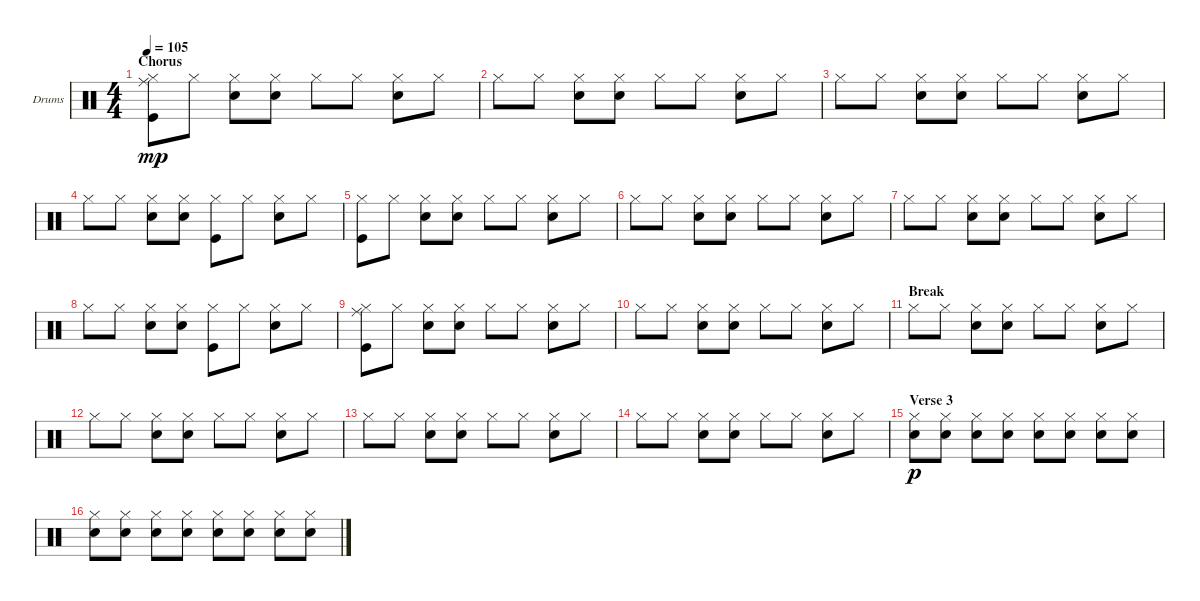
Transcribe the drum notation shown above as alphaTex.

\bracketExtendMode groupsimilarinstruments
\firstSystemTrackNameOrientation horizontal
\otherSystemsTrackNameOrientation horizontal
\track ("Drumkit" "Drums") {instrument percussion}
\staff {score}
\articulation defaults
\ts (4 4)
\section ("" "Chorus")
\tempo 105
\clef neutral
\ks c
("Hi-Hat (closed)" "Ride (middle)" "Kick (hit)").8{dy mp} "Hi-Hat (closed)".8 ("Snare (hit) 2" "Hi-Hat (closed)").8 ("Hi-Hat (closed)" "Snare (hit) 2").8 "Hi-Hat (closed)".8 "Hi-Hat (closed)".8 ("Snare (hit) 2" "Hi-Hat (closed)").8 "Hi-Hat (closed)".8 |
"Hi-Hat (closed)".8 "Hi-Hat (closed)".8 ("Snare (hit) 2" "Hi-Hat (closed)").8 ("Hi-Hat (closed)" "Snare (hit) 2").8 "Hi-Hat (closed)".8 "Hi-Hat (closed)".8 ("Snare (hit) 2" "Hi-Hat (closed)").8 "Hi-Hat (closed)".8 |
"Hi-Hat (closed)".8 "Hi-Hat (closed)".8 ("Snare (hit) 2" "Hi-Hat (closed)").8 ("Hi-Hat (closed)" "Snare (hit) 2").8 "Hi-Hat (closed)".8 "Hi-Hat (closed)".8 ("Snare (hit) 2" "Hi-Hat (closed)").8 "Hi-Hat (closed)".8 |
"Hi-Hat (closed)".8 "Hi-Hat (closed)".8 ("Snare (hit) 2" "Hi-Hat (closed)").8 ("Hi-Hat (closed)" "Snare (hit) 2").8 ("Hi-Hat (closed)" "Kick (hit)").8 "Hi-Hat (closed)".8 ("Snare (hit) 2" "Hi-Hat (closed)").8 "Hi-Hat (closed)".8 |
("Hi-Hat (closed)" "Kick (hit)").8 "Hi-Hat (closed)".8 ("Snare (hit) 2" "Hi-Hat (closed)").8 ("Hi-Hat (closed)" "Snare (hit) 2").8 "Hi-Hat (closed)".8 "Hi-Hat (closed)".8 ("Snare (hit) 2" "Hi-Hat (closed)").8 "Hi-Hat (closed)".8 |
"Hi-Hat (closed)".8 "Hi-Hat (closed)".8 ("Snare (hit) 2" "Hi-Hat (closed)").8 ("Hi-Hat (closed)" "Snare (hit) 2").8 "Hi-Hat (closed)".8 "Hi-Hat (closed)".8 ("Snare (hit) 2" "Hi-Hat (closed)").8 "Hi-Hat (closed)".8 |
"Hi-Hat (closed)".8 "Hi-Hat (closed)".8 ("Snare (hit) 2" "Hi-Hat (closed)").8 ("Hi-Hat (closed)" "Snare (hit) 2").8 "Hi-Hat (closed)".8 "Hi-Hat (closed)".8 ("Snare (hit) 2" "Hi-Hat (closed)").8 "Hi-Hat (closed)".8 |
"Hi-Hat (closed)".8 "Hi-Hat (closed)".8 ("Snare (hit) 2" "Hi-Hat (closed)").8 ("Hi-Hat (closed)" "Snare (hit) 2").8 ("Hi-Hat (closed)" "Kick (hit)").8 "Hi-Hat (closed)".8 ("Snare (hit) 2" "Hi-Hat (closed)").8 "Hi-Hat (closed)".8 |
("Hi-Hat (closed)" "Ride (middle)" "Kick (hit)").8 "Hi-Hat (closed)".8 ("Snare (hit) 2" "Hi-Hat (closed)").8 ("Hi-Hat (closed)" "Snare (hit) 2").8 "Hi-Hat (closed)".8 "Hi-Hat (closed)".8 ("Snare (hit) 2" "Hi-Hat (closed)").8 "Hi-Hat (closed)".8 |
"Hi-Hat (closed)".8 "Hi-Hat (closed)".8 ("Snare (hit) 2" "Hi-Hat (closed)").8 ("Hi-Hat (closed)" "Snare (hit) 2").8 "Hi-Hat (closed)".8 "Hi-Hat (closed)".8 ("Snare (hit) 2" "Hi-Hat (closed)").8 "Hi-Hat (closed)".8 |
\section ("" "Break")
"Hi-Hat (closed)".8 "Hi-Hat (closed)".8 ("Snare (hit) 2" "Hi-Hat (closed)").8 ("Hi-Hat (closed)" "Snare (hit) 2").8 "Hi-Hat (closed)".8 "Hi-Hat (closed)".8 ("Snare (hit) 2" "Hi-Hat (closed)").8 "Hi-Hat (closed)".8 |
"Hi-Hat (closed)".8 "Hi-Hat (closed)".8 ("Snare (hit) 2" "Hi-Hat (closed)").8 ("Hi-Hat (closed)" "Snare (hit) 2").8 "Hi-Hat (closed)".8 "Hi-Hat (closed)".8 ("Snare (hit) 2" "Hi-Hat (closed)").8 "Hi-Hat (closed)".8 |
"Hi-Hat (closed)".8 "Hi-Hat (closed)".8 ("Snare (hit) 2" "Hi-Hat (closed)").8 ("Hi-Hat (closed)" "Snare (hit) 2").8 "Hi-Hat (closed)".8 "Hi-Hat (closed)".8 ("Snare (hit) 2" "Hi-Hat (closed)").8 "Hi-Hat (closed)".8 |
"Hi-Hat (closed)".8 "Hi-Hat (closed)".8 ("Snare (hit) 2" "Hi-Hat (closed)").8 ("Hi-Hat (closed)" "Snare (hit) 2").8 "Hi-Hat (closed)".8 "Hi-Hat (closed)".8 ("Snare (hit) 2" "Hi-Hat (closed)").8 "Hi-Hat (closed)".8 |
\section ("" "Verse 3")
("Snare (hit) 2" "Hi-Hat (closed)").8{dy p} ("Hi-Hat (closed)" "Snare (hit) 2").8 ("Snare (hit) 2" "Hi-Hat (closed)").8 ("Hi-Hat (closed)" "Snare (hit) 2").8 ("Snare (hit) 2" "Hi-Hat (closed)").8 ("Hi-Hat (closed)" "Snare (hit) 2").8 ("Snare (hit) 2" "Hi-Hat (closed)").8 ("Hi-Hat (closed)" "Snare (hit) 2").8 |
("Snare (hit) 2" "Hi-Hat (closed)").8 ("Hi-Hat (closed)" "Snare (hit) 2").8 ("Snare (hit) 2" "Hi-Hat (closed)").8 ("Hi-Hat (closed)" "Snare (hit) 2").8 ("Snare (hit) 2" "Hi-Hat (closed)").8 ("Hi-Hat (closed)" "Snare (hit) 2").8 ("Snare (hit) 2" "Hi-Hat (closed)").8 ("Hi-Hat (closed)" "Snare (hit) 2").8
